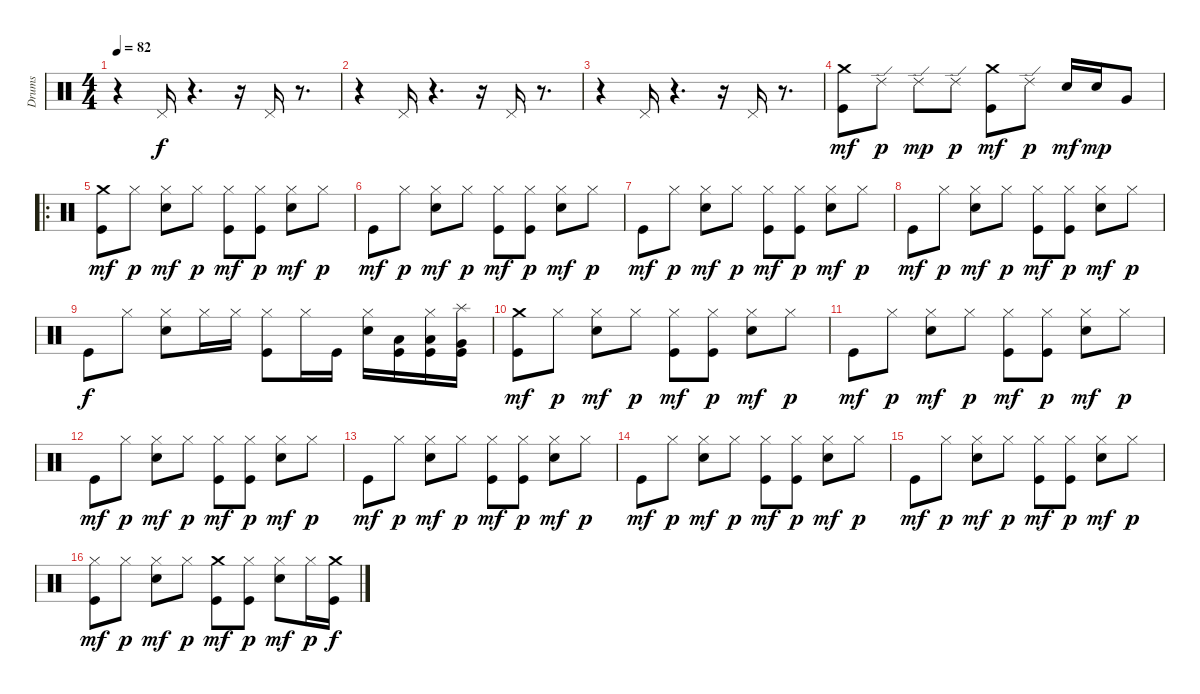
\track ("Drums" "Drums") {instrument percussion}
\staff {score}
\articulation defaults
\ts (4 4)
\tempo 82
\clef neutral
\ks c
r.4{dy f} "Pedal Hi-Hat (hit)".16 r.4{d} r.16 "Pedal Hi-Hat (hit)".16 r.8{d} |
r.4 "Pedal Hi-Hat (hit)".16 r.4{d} r.16 "Pedal Hi-Hat (hit)".16 r.8{d} |
r.4 "Pedal Hi-Hat (hit)".16 r.4{d} r.16 "Pedal Hi-Hat (hit)".16 r.8{d} |
("Crash medium (hit)" "Kick (hit)").8{dy mf} "Ride (edge) 2".8{dy p} "Ride (edge) 2".8{dy mp} "Ride (edge) 2".8{dy p} ("Crash medium (hit)" "Kick (hit)").8{dy mf} "Ride (edge) 2".8{dy p} "Electric Snare (hit)".16{dy mf} "Electric Snare (hit)".16{dy mp} "Very Low Tom (hit)".8 |
\ro
("Kick (hit)" "Crash medium (hit)").8{dy mf} "Hi-Hat (closed)".8{dy p} ("Hi-Hat (closed)" "Electric Snare (hit)").8{dy mf} "Hi-Hat (closed)".8{dy p} ("Hi-Hat (closed)" "Kick (hit)").8{dy mf} ("Hi-Hat (closed)" "Kick (hit)").8{dy p} ("Hi-Hat (closed)" "Electric Snare (hit)").8{dy mf} "Hi-Hat (closed)".8{dy p} |
"Kick (hit)".8{dy mf} "Hi-Hat (closed)".8{dy p} ("Hi-Hat (closed)" "Electric Snare (hit)").8{dy mf} "Hi-Hat (closed)".8{dy p} ("Hi-Hat (closed)" "Kick (hit)").8{dy mf} ("Hi-Hat (closed)" "Kick (hit)").8{dy p} ("Hi-Hat (closed)" "Electric Snare (hit)").8{dy mf} "Hi-Hat (closed)".8{dy p} |
"Kick (hit)".8{dy mf} "Hi-Hat (closed)".8{dy p} ("Hi-Hat (closed)" "Electric Snare (hit)").8{dy mf} "Hi-Hat (closed)".8{dy p} ("Hi-Hat (closed)" "Kick (hit)").8{dy mf} ("Hi-Hat (closed)" "Kick (hit)").8{dy p} ("Hi-Hat (closed)" "Electric Snare (hit)").8{dy mf} "Hi-Hat (closed)".8{dy p} |
"Kick (hit)".8{dy mf} "Hi-Hat (closed)".8{dy p} ("Hi-Hat (closed)" "Electric Snare (hit)").8{dy mf} "Hi-Hat (closed)".8{dy p} ("Hi-Hat (closed)" "Kick (hit)").8{dy mf} ("Hi-Hat (closed)" "Kick (hit)").8{dy p} ("Hi-Hat (closed)" "Electric Snare (hit)").8{dy mf} "Hi-Hat (closed)".8{dy p} |
"Kick (hit)".8{dy f} "Hi-Hat (closed)".8 ("Hi-Hat (closed)" "Electric Snare (hit)").8 "Hi-Hat (closed)".16 "Hi-Hat (closed)".16 ("Hi-Hat (closed)" "Kick (hit)").8 "Hi-Hat (closed)".16 "Kick (hit)".16 ("Hi-Hat (closed)" "Electric Snare (hit)").16 ("Low Tom (hit)" "Kick (hit)").16 ("Hi-Hat (closed)" "Low Tom (hit)" "Kick (hit)").16 ("Splash (hit)" "Very Low Tom (hit)" "Kick (hit)").16 |
("Kick (hit)" "Crash medium (hit)").8{dy mf} "Hi-Hat (closed)".8{dy p} ("Hi-Hat (closed)" "Electric Snare (hit)").8{dy mf} "Hi-Hat (closed)".8{dy p} ("Hi-Hat (closed)" "Kick (hit)").8{dy mf} ("Hi-Hat (closed)" "Kick (hit)").8{dy p} ("Hi-Hat (closed)" "Electric Snare (hit)").8{dy mf} "Hi-Hat (closed)".8{dy p} |
"Kick (hit)".8{dy mf} "Hi-Hat (closed)".8{dy p} ("Hi-Hat (closed)" "Electric Snare (hit)").8{dy mf} "Hi-Hat (closed)".8{dy p} ("Hi-Hat (closed)" "Kick (hit)").8{dy mf} ("Hi-Hat (closed)" "Kick (hit)").8{dy p} ("Hi-Hat (closed)" "Electric Snare (hit)").8{dy mf} "Hi-Hat (closed)".8{dy p} |
"Kick (hit)".8{dy mf} "Hi-Hat (closed)".8{dy p} ("Hi-Hat (closed)" "Electric Snare (hit)").8{dy mf} "Hi-Hat (closed)".8{dy p} ("Hi-Hat (closed)" "Kick (hit)").8{dy mf} ("Hi-Hat (closed)" "Kick (hit)").8{dy p} ("Hi-Hat (closed)" "Electric Snare (hit)").8{dy mf} "Hi-Hat (closed)".8{dy p} |
"Kick (hit)".8{dy mf} "Hi-Hat (closed)".8{dy p} ("Hi-Hat (closed)" "Electric Snare (hit)").8{dy mf} "Hi-Hat (closed)".8{dy p} ("Hi-Hat (closed)" "Kick (hit)").8{dy mf} ("Hi-Hat (closed)" "Kick (hit)").8{dy p} ("Hi-Hat (closed)" "Electric Snare (hit)").8{dy mf} "Hi-Hat (closed)".8{dy p} |
"Kick (hit)".8{dy mf} "Hi-Hat (closed)".8{dy p} ("Hi-Hat (closed)" "Electric Snare (hit)").8{dy mf} "Hi-Hat (closed)".8{dy p} ("Hi-Hat (closed)" "Kick (hit)").8{dy mf} ("Hi-Hat (closed)" "Kick (hit)").8{dy p} ("Hi-Hat (closed)" "Electric Snare (hit)").8{dy mf} "Hi-Hat (closed)".8{dy p} |
"Kick (hit)".8{dy mf} "Hi-Hat (closed)".8{dy p} ("Hi-Hat (closed)" "Electric Snare (hit)").8{dy mf} "Hi-Hat (closed)".8{dy p} ("Hi-Hat (closed)" "Kick (hit)").8{dy mf} ("Hi-Hat (closed)" "Kick (hit)").8{dy p} ("Hi-Hat (closed)" "Electric Snare (hit)").8{dy mf} "Hi-Hat (closed)".8{dy p} |
("Kick (hit)" "Hi-Hat (closed)").8{dy mf} "Hi-Hat (closed)".8{dy p} ("Hi-Hat (closed)" "Electric Snare (hit)").8{dy mf} "Hi-Hat (closed)".8{dy p} ("Crash medium (hit)" "Kick (hit)").8{dy mf} ("Hi-Hat (closed)" "Kick (hit)").8{dy p} ("Hi-Hat (closed)" "Electric Snare (hit)").8{dy mf} "Hi-Hat (closed)".16{dy p} ("Crash medium (hit)" "Kick (hit)").16{dy f}
